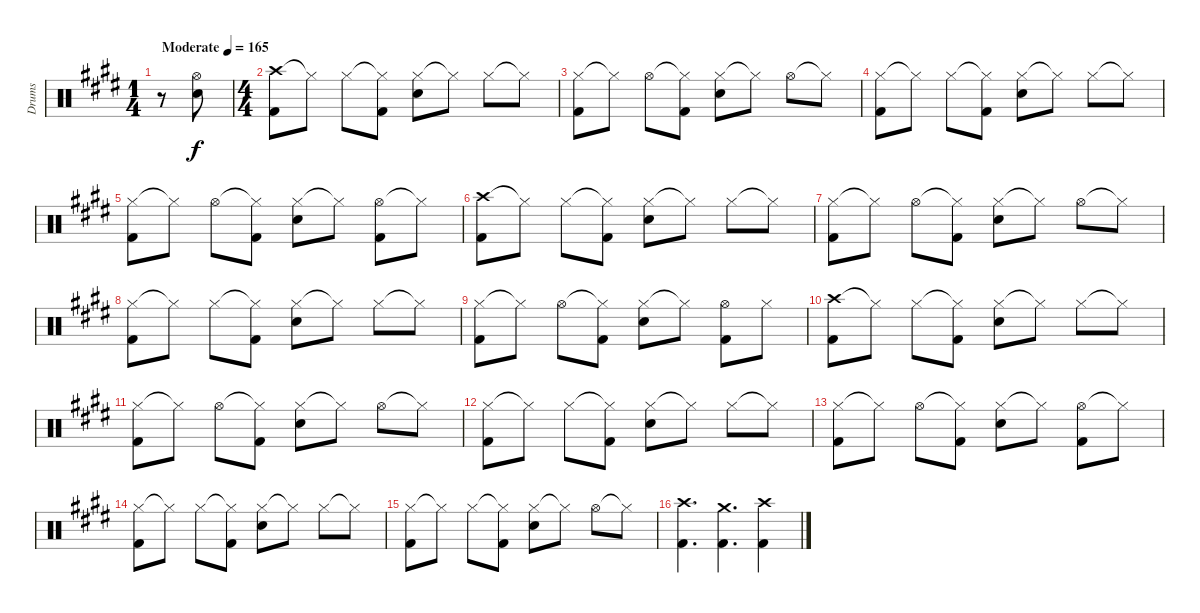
\track ("Drums" "Drums") {instrument percussion}
\staff {score}
\articulation defaults
\ts (1 4)
\tempo (165 "Moderate")
\clef neutral
\ks e
r.8{dy f} ("Snare (hit) 2" "Hi-Hat (open)").8 |
\ts (4 4)
("Crash high (hit)" "Kick (hit) 2").8 "Hi-Hat (closed)"{t}.8 "Hi-Hat (closed)".8 ("Hi-Hat (closed)"{t} "Kick (hit) 2").8 ("Hi-Hat (closed)" "Snare (hit) 2").8 "Hi-Hat (closed)"{t}.8 "Hi-Hat (closed)".8 "Hi-Hat (closed)"{t}.8 |
("Hi-Hat (closed)" "Kick (hit) 2").8 "Hi-Hat (closed)"{t}.8 "Hi-Hat (open)".8 ("Hi-Hat (closed)"{t} "Kick (hit) 2").8 ("Hi-Hat (closed)" "Snare (hit) 2").8 "Hi-Hat (closed)"{t}.8 "Hi-Hat (open)".8 "Hi-Hat (closed)"{t}.8 |
("Hi-Hat (closed)" "Kick (hit) 2").8 "Hi-Hat (closed)"{t}.8 "Hi-Hat (closed)".8 ("Hi-Hat (closed)"{t} "Kick (hit) 2").8 ("Hi-Hat (closed)" "Snare (hit) 2").8 "Hi-Hat (closed)"{t}.8 "Hi-Hat (closed)".8 "Hi-Hat (closed)"{t}.8 |
("Hi-Hat (closed)" "Kick (hit) 2").8 "Hi-Hat (closed)"{t}.8 "Hi-Hat (open)".8 ("Hi-Hat (closed)"{t} "Kick (hit) 2").8 ("Hi-Hat (closed)" "Snare (hit) 2").8 "Hi-Hat (closed)"{t}.8 ("Hi-Hat (open)" "Kick (hit) 2").8 "Hi-Hat (closed)"{t}.8 |
("Crash high (hit)" "Kick (hit) 2").8 "Hi-Hat (closed)"{t}.8 "Hi-Hat (closed)".8 ("Hi-Hat (closed)"{t} "Kick (hit) 2").8 ("Hi-Hat (closed)" "Snare (hit) 2").8 "Hi-Hat (closed)"{t}.8 "Hi-Hat (closed)".8 "Hi-Hat (closed)"{t}.8 |
("Hi-Hat (closed)" "Kick (hit) 2").8 "Hi-Hat (closed)"{t}.8 "Hi-Hat (open)".8 ("Hi-Hat (closed)"{t} "Kick (hit) 2").8 ("Hi-Hat (closed)" "Snare (hit) 2").8 "Hi-Hat (closed)"{t}.8 "Hi-Hat (open)".8 "Hi-Hat (closed)"{t}.8 |
("Hi-Hat (closed)" "Kick (hit) 2").8 "Hi-Hat (closed)"{t}.8 "Hi-Hat (closed)".8 ("Hi-Hat (closed)"{t} "Kick (hit) 2").8 ("Hi-Hat (closed)" "Snare (hit) 2").8 "Hi-Hat (closed)"{t}.8 "Hi-Hat (closed)".8 "Hi-Hat (closed)"{t}.8 |
("Hi-Hat (closed)" "Kick (hit) 2").8 "Hi-Hat (closed)"{t}.8 "Hi-Hat (open)".8 ("Hi-Hat (closed)"{t} "Kick (hit) 2").8 ("Hi-Hat (closed)" "Snare (hit) 2").8 "Hi-Hat (closed)"{t}.8 ("Hi-Hat (open)" "Kick (hit) 2").8 "Hi-Hat (closed)".8 |
("Crash high (hit)" "Kick (hit) 2").8 "Hi-Hat (closed)"{t}.8 "Hi-Hat (closed)".8 ("Hi-Hat (closed)"{t} "Kick (hit) 2").8 ("Hi-Hat (closed)" "Snare (hit) 2").8 "Hi-Hat (closed)"{t}.8 "Hi-Hat (closed)".8 "Hi-Hat (closed)"{t}.8 |
("Hi-Hat (closed)" "Kick (hit) 2").8 "Hi-Hat (closed)"{t}.8 "Hi-Hat (open)".8 ("Hi-Hat (closed)"{t} "Kick (hit) 2").8 ("Hi-Hat (closed)" "Snare (hit) 2").8 "Hi-Hat (closed)"{t}.8 "Hi-Hat (open)".8 "Hi-Hat (closed)"{t}.8 |
("Hi-Hat (closed)" "Kick (hit) 2").8 "Hi-Hat (closed)"{t}.8 "Hi-Hat (closed)".8 ("Hi-Hat (closed)"{t} "Kick (hit) 2").8 ("Hi-Hat (closed)" "Snare (hit) 2").8 "Hi-Hat (closed)"{t}.8 "Hi-Hat (closed)".8 "Hi-Hat (closed)"{t}.8 |
("Hi-Hat (closed)" "Kick (hit) 2").8 "Hi-Hat (closed)"{t}.8 "Hi-Hat (open)".8 ("Hi-Hat (closed)"{t} "Kick (hit) 2").8 ("Hi-Hat (closed)" "Snare (hit) 2").8 "Hi-Hat (closed)"{t}.8 ("Hi-Hat (open)" "Kick (hit) 2").8 "Hi-Hat (closed)"{t}.8 |
("Hi-Hat (closed)" "Kick (hit) 2").8 "Hi-Hat (closed)"{t}.8 "Hi-Hat (closed)".8 ("Hi-Hat (closed)"{t} "Kick (hit) 2").8 ("Hi-Hat (closed)" "Snare (hit) 2").8 "Hi-Hat (closed)"{t}.8 "Hi-Hat (closed)".8 "Hi-Hat (closed)"{t}.8 |
("Hi-Hat (closed)" "Kick (hit) 2").8 "Hi-Hat (closed)"{t}.8 "Hi-Hat (closed)".8 ("Hi-Hat (closed)"{t} "Kick (hit) 2").8 ("Hi-Hat (closed)" "Snare (hit) 2").8 "Hi-Hat (closed)"{t}.8 "Hi-Hat (open)".8 "Hi-Hat (closed)"{t}.8 |
("Crash high (hit)" "Kick (hit) 2").4{d} ("Crash medium (hit)" "Kick (hit) 2").4{d} ("Crash high (hit)" "Kick (hit) 2").4
